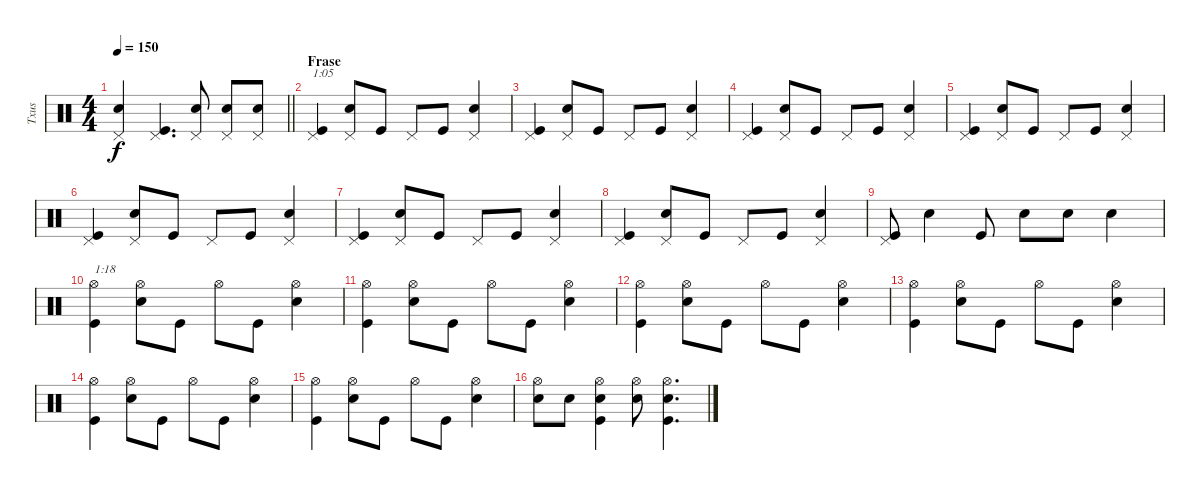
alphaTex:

\track ("Txus" "Txus") {instrument percussion}
\staff {score}
\articulation defaults
\ts (4 4)
\tempo 150
\clef neutral
\barLineRight lightlight
\ks c
("Snare (hit) 2" "Pedal Hi-Hat (hit)").4{dy f} ("Kick (hit)" "Pedal Hi-Hat (hit)").4{d} ("Snare (hit) 2" "Pedal Hi-Hat (hit)").8 ("Snare (hit) 2" "Pedal Hi-Hat (hit)").8 ("Snare (hit) 2" "Pedal Hi-Hat (hit)").8 |
\section ("" "Frase")
("Kick (hit)" "Pedal Hi-Hat (hit)").4{txt "1:05"} ("Snare (hit) 2" "Pedal Hi-Hat (hit)").8 "Kick (hit)".8 "Pedal Hi-Hat (hit)".8 "Kick (hit)".8 ("Snare (hit) 2" "Pedal Hi-Hat (hit)").4 |
("Kick (hit)" "Pedal Hi-Hat (hit)").4 ("Snare (hit) 2" "Pedal Hi-Hat (hit)").8 "Kick (hit)".8 "Pedal Hi-Hat (hit)".8 "Kick (hit)".8 ("Snare (hit) 2" "Pedal Hi-Hat (hit)").4 |
("Kick (hit)" "Pedal Hi-Hat (hit)").4 ("Snare (hit) 2" "Pedal Hi-Hat (hit)").8 "Kick (hit)".8 "Pedal Hi-Hat (hit)".8 "Kick (hit)".8 ("Snare (hit) 2" "Pedal Hi-Hat (hit)").4 |
("Kick (hit)" "Pedal Hi-Hat (hit)").4 ("Snare (hit) 2" "Pedal Hi-Hat (hit)").8 "Kick (hit)".8 "Pedal Hi-Hat (hit)".8 "Kick (hit)".8 ("Snare (hit) 2" "Pedal Hi-Hat (hit)").4 |
("Kick (hit)" "Pedal Hi-Hat (hit)").4 ("Snare (hit) 2" "Pedal Hi-Hat (hit)").8 "Kick (hit)".8 "Pedal Hi-Hat (hit)".8 "Kick (hit)".8 ("Snare (hit) 2" "Pedal Hi-Hat (hit)").4 |
("Kick (hit)" "Pedal Hi-Hat (hit)").4 ("Snare (hit) 2" "Pedal Hi-Hat (hit)").8 "Kick (hit)".8 "Pedal Hi-Hat (hit)".8 "Kick (hit)".8 ("Snare (hit) 2" "Pedal Hi-Hat (hit)").4 |
("Kick (hit)" "Pedal Hi-Hat (hit)").4 ("Snare (hit) 2" "Pedal Hi-Hat (hit)").8 "Kick (hit)".8 "Pedal Hi-Hat (hit)".8 "Kick (hit)".8 ("Snare (hit) 2" "Pedal Hi-Hat (hit)").4 |
("Kick (hit)" "Pedal Hi-Hat (hit)").8 "Snare (hit) 2".4 "Kick (hit)".8 "Snare (hit) 2".8 "Snare (hit) 2".8 "Snare (hit) 2".4 |
("Kick (hit)" "Hi-Hat (open)").4{txt "1:18"} ("Snare (hit) 2" "Hi-Hat (open)").8 "Kick (hit)".8 "Hi-Hat (open)".8 "Kick (hit)".8 ("Snare (hit) 2" "Hi-Hat (open)").4 |
("Kick (hit)" "Hi-Hat (open)").4 ("Snare (hit) 2" "Hi-Hat (open)").8 "Kick (hit)".8 "Hi-Hat (open)".8 "Kick (hit)".8 ("Snare (hit) 2" "Hi-Hat (open)").4 |
("Kick (hit)" "Hi-Hat (open)").4 ("Snare (hit) 2" "Hi-Hat (open)").8 "Kick (hit)".8 "Hi-Hat (open)".8 "Kick (hit)".8 ("Snare (hit) 2" "Hi-Hat (open)").4 |
("Kick (hit)" "Hi-Hat (open)").4 ("Snare (hit) 2" "Hi-Hat (open)").8 "Kick (hit)".8 "Hi-Hat (open)".8 "Kick (hit)".8 ("Snare (hit) 2" "Hi-Hat (open)").4 |
("Kick (hit)" "Hi-Hat (open)").4 ("Snare (hit) 2" "Hi-Hat (open)").8 "Kick (hit)".8 "Hi-Hat (open)".8 "Kick (hit)".8 ("Snare (hit) 2" "Hi-Hat (open)").4 |
("Kick (hit)" "Hi-Hat (open)").4 ("Snare (hit) 2" "Hi-Hat (open)").8 "Kick (hit)".8 "Hi-Hat (open)".8 "Kick (hit)".8 ("Snare (hit) 2" "Hi-Hat (open)").4 |
("Snare (hit) 2" "Hi-Hat (open)").8 "Snare (hit) 2".8 ("Kick (hit)" "Snare (hit) 2" "Hi-Hat (open)").4 ("Snare (hit) 2" "Hi-Hat (open)").8 ("Kick (hit)" "Snare (hit) 2" "Hi-Hat (open)").4{d}
